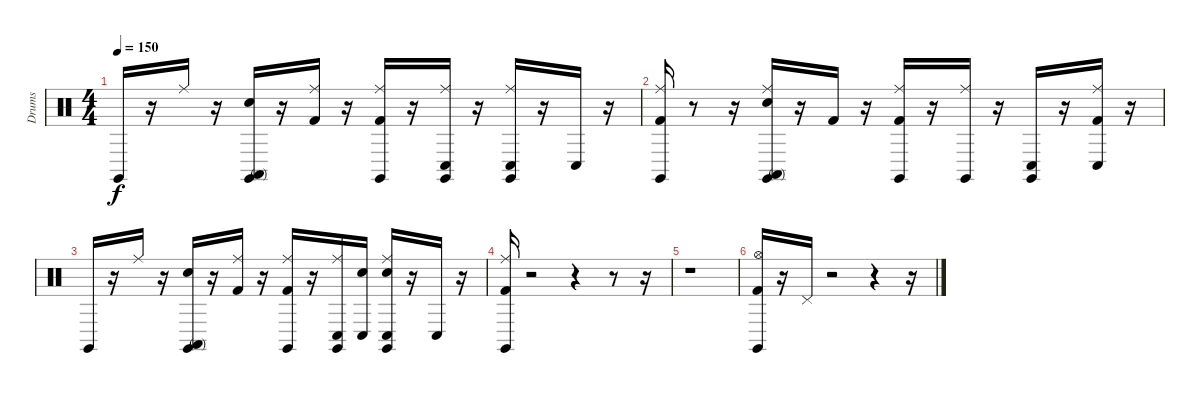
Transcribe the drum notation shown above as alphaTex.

\track ("Drums" "Drums") {instrument percussion}
\staff {score}
\articulation defaults
\ts (4 4)
\tempo 150
\clef neutral
\ks c "Claves (hit)".16{dy f}
r.16 "Ride (middle)".16 r.16 ("Snare (hit) 2" "Conga high (mute)" "Claves (hit)").16 r.16 ("Kick (hit) 2" "Ride (middle)").16 r.16 ("Kick (hit) 2" "Ride (middle)" "Claves (hit)").16 r.16 ("Ride (middle)" "Conga low (hit)" "Claves (hit)").16 r.16 ("Ride (middle)" "Conga low (hit)" "Claves (hit)").16 r.16 "Conga low (hit)".16 r.16 |
("Kick (hit) 2" "Ride (middle)" "Claves (hit)").16 r.8 r.16 ("Snare (hit) 2" "Ride (middle)" "Conga high (mute)" "Claves (hit)").16 r.16 "Kick (hit) 2".16 r.16 ("Kick (hit) 2" "Ride (middle)" "Claves (hit)").16 r.16 ("Ride (middle)" "Claves (hit)").16 r.16 ("Conga low (hit)" "Claves (hit)").16 r.16 ("Kick (hit) 2" "Ride (middle)" "Conga low (hit)").16 r.16 |
"Claves (hit)".16 r.16 "Ride (middle)".16 r.16 ("Snare (hit) 2" "Conga high (mute)" "Claves (hit)").16 r.16 ("Kick (hit) 2" "Ride (middle)").16 r.16 ("Kick (hit) 2" "Ride (middle)" "Claves (hit)").16 r.16 ("Ride (middle)" "Conga low (hit)" "Claves (hit)").16 ("Snare (hit)" "Conga low (hit)").16 ("Snare (hit)" "Ride (middle)" "Conga low (hit)" "Claves (hit)").16 r.16 "Conga low (hit)".16 r.16 |
("Kick (hit) 2" "Ride (middle)" "Claves (hit)").16 r.2 r.4 r.8 r.16 |
r.1 |
("Kick (hit) 2" "Hi-Hat (open)" "Claves (hit)").16 r.16 "Pedal Hi-Hat (hit)".16 r.2 r.4 r.16
